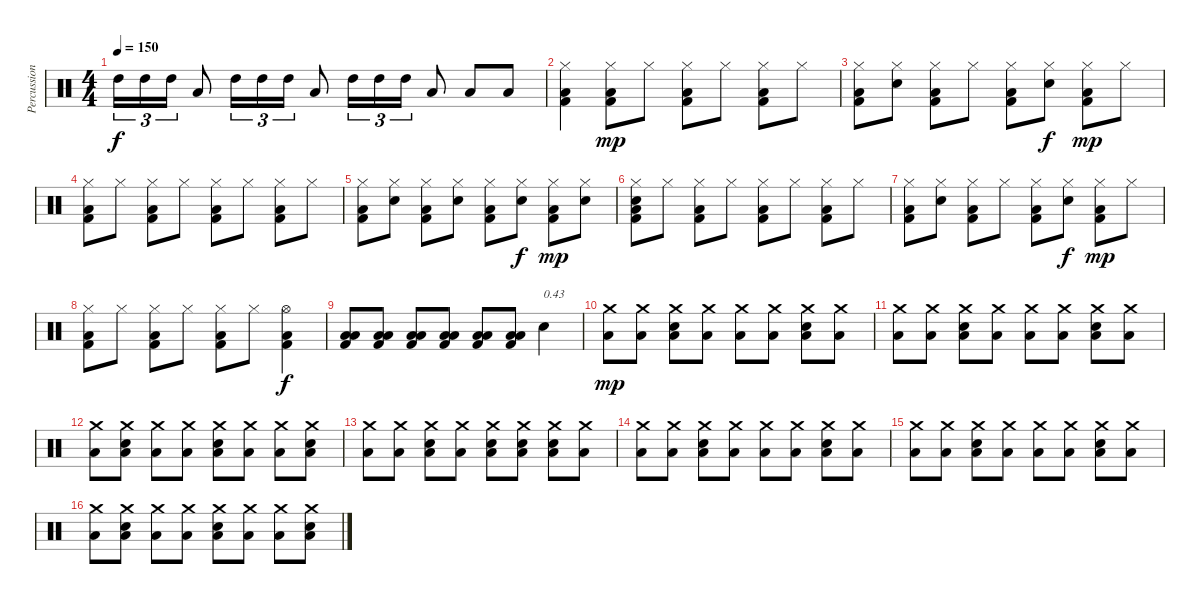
\track ("Percussions" "Percussion") {instrument percussion}
\staff {score}
\articulation defaults
\ts (4 4)
\tempo 150
\clef neutral
\ks c "High Tom (hit)".16{tu (3 2) dy f} "High Tom (hit)".16{tu (3 2)} "High Tom (hit)".16{tu (3 2)} "Low Tom (hit)".8 "High Tom (hit)".16{tu (3 2)} "High Tom (hit)".16{tu (3 2)} "High Tom (hit)".16{tu (3 2)} "Low Tom (hit)".8 "High Tom (hit)".16{tu (3 2)} "High Tom (hit)".16{tu (3 2)} "High Tom (hit)".16{tu (3 2)} "Low Tom (hit)".8 "Low Tom (hit)".8 "Low Tom (hit)".8
|
("Kick (hit) 2" "Low Floor Tom (hit)" "Hi-Hat (closed)").4 ("Kick (hit) 2" "Low Floor Tom (hit)" "Hi-Hat (closed)").8{dy mp} "Hi-Hat (closed)".8 ("Kick (hit) 2" "Low Floor Tom (hit)" "Hi-Hat (closed)").8 "Hi-Hat (closed)".8 ("Kick (hit) 2" "Low Floor Tom (hit)" "Hi-Hat (closed)").8 "Hi-Hat (closed)".8 |
("Kick (hit) 2" "Low Floor Tom (hit)" "Hi-Hat (closed)").8 ("Snare (hit) 2" "Hi-Hat (closed)").8 ("Kick (hit) 2" "Low Floor Tom (hit)" "Hi-Hat (closed)").8 "Hi-Hat (closed)".8 ("Kick (hit) 2" "Low Floor Tom (hit)" "Hi-Hat (closed)").8 ("Snare (hit) 2" "Hi-Hat (closed)").8{dy f} ("Kick (hit) 2" "Low Floor Tom (hit)" "Hi-Hat (closed)").8{dy mp} "Hi-Hat (closed)".8 |
("Kick (hit) 2" "Low Floor Tom (hit)" "Hi-Hat (closed)").8 "Hi-Hat (closed)".8 ("Kick (hit) 2" "Low Floor Tom (hit)" "Hi-Hat (closed)").8 "Hi-Hat (closed)".8 ("Kick (hit) 2" "Low Floor Tom (hit)" "Hi-Hat (closed)").8 "Hi-Hat (closed)".8 ("Kick (hit) 2" "Low Floor Tom (hit)" "Hi-Hat (closed)").8 "Hi-Hat (closed)".8 |
("Kick (hit) 2" "Low Floor Tom (hit)" "Hi-Hat (closed)").8 ("Snare (hit) 2" "Hi-Hat (closed)").8 ("Kick (hit) 2" "Low Floor Tom (hit)" "Hi-Hat (closed)").8 ("Snare (hit) 2" "Hi-Hat (closed)").8 ("Kick (hit) 2" "Low Floor Tom (hit)" "Hi-Hat (closed)").8 ("Snare (hit) 2" "Hi-Hat (closed)").8{dy f} ("Kick (hit) 2" "Low Floor Tom (hit)" "Hi-Hat (closed)").8{dy mp} ("Snare (hit) 2" "Hi-Hat (closed)").8 |
("Kick (hit) 2" "Low Floor Tom (hit)" "Snare (hit) 2" "Hi-Hat (closed)").8 "Hi-Hat (closed)".8 ("Kick (hit) 2" "Low Floor Tom (hit)" "Hi-Hat (closed)").8 "Hi-Hat (closed)".8 ("Kick (hit) 2" "Low Floor Tom (hit)" "Hi-Hat (closed)").8 "Hi-Hat (closed)".8 ("Kick (hit) 2" "Low Floor Tom (hit)" "Hi-Hat (closed)").8 "Hi-Hat (closed)".8 |
("Kick (hit) 2" "Low Floor Tom (hit)" "Hi-Hat (closed)").8 ("Snare (hit) 2" "Hi-Hat (closed)").8 ("Kick (hit) 2" "Low Floor Tom (hit)" "Hi-Hat (closed)").8 "Hi-Hat (closed)".8 ("Kick (hit) 2" "Low Floor Tom (hit)" "Hi-Hat (closed)").8 ("Snare (hit) 2" "Hi-Hat (closed)").8{dy f} ("Kick (hit) 2" "Low Floor Tom (hit)" "Hi-Hat (closed)").8{dy mp} "Hi-Hat (closed)".8 |
("Kick (hit) 2" "Low Floor Tom (hit)" "Hi-Hat (closed)").8 "Hi-Hat (closed)".8 ("Kick (hit) 2" "Low Floor Tom (hit)" "Hi-Hat (closed)").8 "Hi-Hat (closed)".8 ("Kick (hit) 2" "Low Floor Tom (hit)" "Hi-Hat (closed)").8 "Hi-Hat (closed)".8 ("Kick (hit) 2" "Low Floor Tom (hit)" "Hi-Hat (open)").4{dy f} |
("Kick (hit) 2" "Low Floor Tom (hit)" "Low Tom (hit)").8 ("Kick (hit) 2" "Low Floor Tom (hit)" "Low Tom (hit)").8 ("Kick (hit) 2" "Low Floor Tom (hit)" "Low Tom (hit)").8 ("Kick (hit) 2" "Low Floor Tom (hit)" "Low Tom (hit)").8 ("Kick (hit) 2" "Low Floor Tom (hit)" "Low Tom (hit)").8 ("Kick (hit) 2" "Low Floor Tom (hit)" "Low Tom (hit)").8 "Snare (hit) 2".4{txt "0.43"} |
("Low Floor Tom (hit)" "Crash medium (hit)").8{dy mp} ("Low Floor Tom (hit)" "Crash medium (hit)").8 ("Low Floor Tom (hit)" "Snare (hit) 2" "Crash medium (hit)").8 ("Low Floor Tom (hit)" "Crash medium (hit)").8 ("Low Floor Tom (hit)" "Crash medium (hit)").8 ("Low Floor Tom (hit)" "Crash medium (hit)").8 ("Low Floor Tom (hit)" "Snare (hit) 2" "Crash medium (hit)").8 ("Low Floor Tom (hit)" "Crash medium (hit)").8 |
("Low Floor Tom (hit)" "Crash medium (hit)").8 ("Low Floor Tom (hit)" "Crash medium (hit)").8 ("Low Floor Tom (hit)" "Snare (hit) 2" "Crash medium (hit)").8 ("Low Floor Tom (hit)" "Crash medium (hit)").8 ("Low Floor Tom (hit)" "Crash medium (hit)").8 ("Low Floor Tom (hit)" "Crash medium (hit)").8 ("Low Floor Tom (hit)" "Snare (hit) 2" "Crash medium (hit)").8 ("Low Floor Tom (hit)" "Crash medium (hit)").8 |
("Low Floor Tom (hit)" "Crash medium (hit)").8 ("Low Floor Tom (hit)" "Snare (hit) 2" "Crash medium (hit)").8 ("Low Floor Tom (hit)" "Crash medium (hit)").8 ("Low Floor Tom (hit)" "Crash medium (hit)").8 ("Low Floor Tom (hit)" "Snare (hit) 2" "Crash medium (hit)").8 ("Low Floor Tom (hit)" "Crash medium (hit)").8 ("Low Floor Tom (hit)" "Crash medium (hit)").8 ("Low Floor Tom (hit)" "Snare (hit) 2" "Crash medium (hit)").8 |
("Low Floor Tom (hit)" "Crash medium (hit)").8 ("Low Floor Tom (hit)" "Crash medium (hit)").8 ("Low Floor Tom (hit)" "Snare (hit) 2" "Crash medium (hit)").8 ("Low Floor Tom (hit)" "Crash medium (hit)").8 ("Low Floor Tom (hit)" "Snare (hit) 2" "Crash medium (hit)").8 ("Low Floor Tom (hit)" "Snare (hit) 2" "Crash medium (hit)").8 ("Low Floor Tom (hit)" "Snare (hit) 2" "Crash medium (hit)").8 ("Low Floor Tom (hit)" "Crash medium (hit)").8 |
("Low Floor Tom (hit)" "Crash medium (hit)").8 ("Low Floor Tom (hit)" "Crash medium (hit)").8 ("Low Floor Tom (hit)" "Snare (hit) 2" "Crash medium (hit)").8 ("Low Floor Tom (hit)" "Crash medium (hit)").8 ("Low Floor Tom (hit)" "Crash medium (hit)").8 ("Low Floor Tom (hit)" "Crash medium (hit)").8 ("Low Floor Tom (hit)" "Snare (hit) 2" "Crash medium (hit)").8 ("Low Floor Tom (hit)" "Crash medium (hit)").8 |
("Low Floor Tom (hit)" "Crash medium (hit)").8 ("Low Floor Tom (hit)" "Crash medium (hit)").8 ("Low Floor Tom (hit)" "Snare (hit) 2" "Crash medium (hit)").8 ("Low Floor Tom (hit)" "Crash medium (hit)").8 ("Low Floor Tom (hit)" "Crash medium (hit)").8 ("Low Floor Tom (hit)" "Crash medium (hit)").8 ("Low Floor Tom (hit)" "Snare (hit) 2" "Crash medium (hit)").8 ("Low Floor Tom (hit)" "Crash medium (hit)").8 |
("Low Floor Tom (hit)" "Crash medium (hit)").8 ("Low Floor Tom (hit)" "Snare (hit) 2" "Crash medium (hit)").8 ("Low Floor Tom (hit)" "Crash medium (hit)").8 ("Low Floor Tom (hit)" "Crash medium (hit)").8 ("Low Floor Tom (hit)" "Snare (hit) 2" "Crash medium (hit)").8 ("Low Floor Tom (hit)" "Crash medium (hit)").8 ("Low Floor Tom (hit)" "Crash medium (hit)").8 ("Low Floor Tom (hit)" "Snare (hit) 2" "Crash medium (hit)").8
